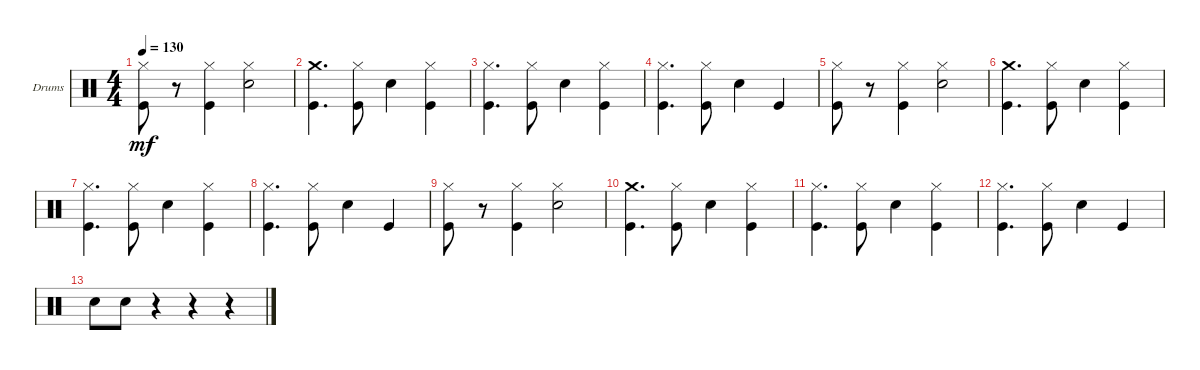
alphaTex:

\defaultSystemsLayout 4
\bracketExtendMode groupsimilarinstruments
\firstSystemTrackNameOrientation horizontal
\otherSystemsTrackNameOrientation horizontal
\track ("Drumkit" "Drums") {instrument percussion}
\staff {score}
\articulation defaults
\ts (4 4)
\tempo 130
\clef neutral
\ks c
("Kick (hit)" "Hi-Hat (closed)").8{dy mf} r.8 ("Kick (hit)" "Hi-Hat (closed)").4 ("Snare (hit) 2" "Hi-Hat (closed)").2 |
("Kick (hit)" "Crash medium (hit)").4{d} ("Kick (hit)" "Hi-Hat (closed)").8 "Snare (hit) 2".4 ("Kick (hit)" "Hi-Hat (closed)").4 |
("Kick (hit)" "Hi-Hat (closed)").4{d} ("Kick (hit)" "Hi-Hat (closed)").8 "Snare (hit) 2".4 ("Kick (hit)" "Hi-Hat (closed)").4 |
("Kick (hit)" "Hi-Hat (closed)").4{d} ("Kick (hit)" "Hi-Hat (closed)").8 "Snare (hit) 2".4 "Kick (hit)".4 |
("Kick (hit)" "Hi-Hat (closed)").8 r.8 ("Kick (hit)" "Hi-Hat (closed)").4 ("Snare (hit) 2" "Hi-Hat (closed)").2 |
("Kick (hit)" "Crash medium (hit)").4{d} ("Kick (hit)" "Hi-Hat (closed)").8 "Snare (hit) 2".4 ("Kick (hit)" "Hi-Hat (closed)").4 |
("Kick (hit)" "Hi-Hat (closed)").4{d} ("Kick (hit)" "Hi-Hat (closed)").8 "Snare (hit) 2".4 ("Kick (hit)" "Hi-Hat (closed)").4 |
("Kick (hit)" "Hi-Hat (closed)").4{d} ("Kick (hit)" "Hi-Hat (closed)").8 "Snare (hit) 2".4 "Kick (hit)".4 |
("Kick (hit)" "Hi-Hat (closed)").8 r.8 ("Kick (hit)" "Hi-Hat (closed)").4 ("Snare (hit) 2" "Hi-Hat (closed)").2 |
("Kick (hit)" "Crash medium (hit)").4{d} ("Kick (hit)" "Hi-Hat (closed)").8 "Snare (hit) 2".4 ("Kick (hit)" "Hi-Hat (closed)").4 |
("Kick (hit)" "Hi-Hat (closed)").4{d} ("Kick (hit)" "Hi-Hat (closed)").8 "Snare (hit) 2".4 ("Kick (hit)" "Hi-Hat (closed)").4 |
("Kick (hit)" "Hi-Hat (closed)").4{d} ("Kick (hit)" "Hi-Hat (closed)").8 "Snare (hit) 2".4 "Kick (hit)".4 |
"Snare (hit) 2".8 "Snare (hit) 2".8 r.4 r.4 r.4
